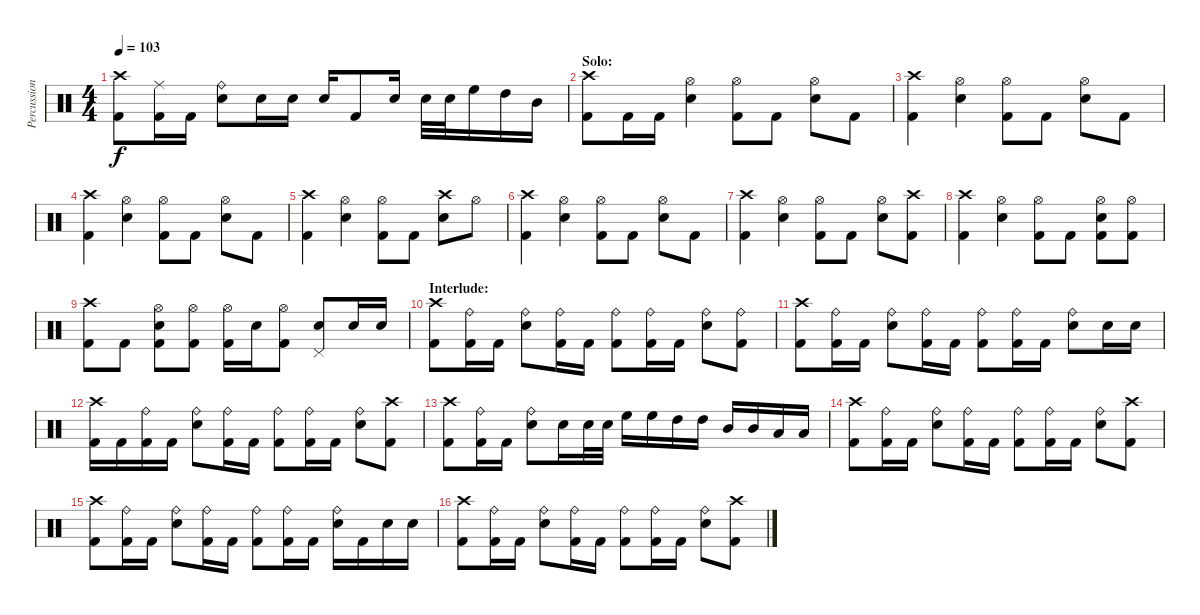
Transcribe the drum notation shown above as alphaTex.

\track ("Percussion" "Percussion") {instrument percussion}
\staff {score}
\articulation defaults
\ts (4 4)
\tempo 103
\clef neutral
\ks c
("Crash high (hit)" "Kick (hit) 2").8{dy f} ("Ride (middle)" "Kick (hit) 2").16 "Kick (hit) 2".16 ("Ride (bell)" "Snare (hit) 2").8 "Snare (hit) 2".16 "Snare (hit) 2".16 "Snare (hit) 2".16 "Kick (hit) 2".8 "Snare (hit) 2".16 "Snare (hit) 2".32 "Snare (hit) 2".32 "High Floor Tom (hit)".16 "High Tom (hit)".16 "Mid Tom (hit)".16 |
\section ("" "Solo:")
("Crash high (hit)" "Kick (hit) 2").8 "Kick (hit) 2".16 "Kick (hit) 2".16 ("Hi-Hat (open)" "Snare (hit) 2").4 ("Hi-Hat (open)" "Kick (hit) 2").8 "Kick (hit) 2".8 ("Hi-Hat (open)" "Snare (hit) 2").8 "Kick (hit) 2".8 |
("Crash high (hit)" "Kick (hit) 2").4 ("Hi-Hat (open)" "Snare (hit) 2").4 ("Hi-Hat (open)" "Kick (hit) 2").8 "Kick (hit) 2".8 ("Hi-Hat (open)" "Snare (hit) 2").8 "Kick (hit) 2".8 |
("Crash high (hit)" "Kick (hit) 2").4 ("Hi-Hat (open)" "Snare (hit) 2").4 ("Hi-Hat (open)" "Kick (hit) 2").8 "Kick (hit) 2".8 ("Hi-Hat (open)" "Snare (hit) 2").8 "Kick (hit) 2".8 |
("Crash high (hit)" "Kick (hit) 2").4 ("Hi-Hat (open)" "Snare (hit) 2").4 ("Hi-Hat (open)" "Kick (hit) 2").8 "Kick (hit) 2".8 ("Crash high (hit)" "Snare (hit) 2").8 "Hi-Hat (open)".8 |
("Crash high (hit)" "Kick (hit) 2").4 ("Hi-Hat (open)" "Snare (hit) 2").4 ("Hi-Hat (open)" "Kick (hit) 2").8 "Kick (hit) 2".8 ("Hi-Hat (open)" "Snare (hit) 2").8 "Kick (hit) 2".8 |
("Crash high (hit)" "Kick (hit) 2").4 ("Hi-Hat (open)" "Snare (hit) 2").4 ("Hi-Hat (open)" "Kick (hit) 2").8 "Kick (hit) 2".8 ("Hi-Hat (open)" "Snare (hit) 2").8 ("Crash high (hit)" "Kick (hit) 2").8 |
("Crash high (hit)" "Kick (hit) 2").4 ("Hi-Hat (open)" "Snare (hit) 2").4 ("Hi-Hat (open)" "Kick (hit) 2").8 "Kick (hit) 2".8 ("Hi-Hat (open)" "Snare (hit) 2" "Kick (hit) 2").8 ("Hi-Hat (open)" "Kick (hit) 2").8 |
("Crash high (hit)" "Kick (hit) 2").8 "Kick (hit) 2".8 ("Hi-Hat (open)" "Snare (hit) 2" "Kick (hit) 2").8 ("Hi-Hat (open)" "Kick (hit) 2").8 ("Hi-Hat (open)" "Kick (hit) 2").16 "Snare (hit) 2".16 ("Hi-Hat (open)" "Kick (hit) 2").8 ("Pedal Hi-Hat (hit)" "Snare (hit) 2").8 "Snare (hit) 2".16 "Snare (hit) 2".16 |
\section ("" "Interlude:")
("Crash high (hit)" "Kick (hit) 2").8 ("Ride (bell)" "Kick (hit) 2").16 "Kick (hit) 2".16 ("Ride (bell)" "Snare (hit) 2").8 ("Ride (bell)" "Kick (hit) 2").16 "Kick (hit) 2".16 ("Ride (bell)" "Kick (hit) 2").8 ("Ride (bell)" "Kick (hit) 2").16 "Kick (hit) 2".16 ("Ride (bell)" "Snare (hit) 2").8 ("Ride (bell)" "Kick (hit) 2").8 |
("Crash high (hit)" "Kick (hit) 2").8 ("Ride (bell)" "Kick (hit) 2").16 "Kick (hit) 2".16 ("Ride (bell)" "Snare (hit) 2").8 ("Ride (bell)" "Kick (hit) 2").16 "Kick (hit) 2".16 ("Ride (bell)" "Kick (hit) 2").8 ("Ride (bell)" "Kick (hit) 2").16 "Kick (hit) 2".16 ("Ride (bell)" "Snare (hit) 2").8 "Snare (hit) 2".16 "Snare (hit) 2".16 |
("Crash high (hit)" "Kick (hit) 2").16 "Kick (hit) 2".16 ("Ride (bell)" "Kick (hit) 2").16 "Kick (hit) 2".16 ("Ride (bell)" "Snare (hit) 2").8 ("Ride (bell)" "Kick (hit) 2").16 "Kick (hit) 2".16 ("Ride (bell)" "Kick (hit) 2").8 ("Ride (bell)" "Kick (hit) 2").16 "Kick (hit) 2".16 ("Ride (bell)" "Snare (hit) 2").8 ("Crash high (hit)" "Kick (hit) 2").8 |
("Crash high (hit)" "Kick (hit) 2").8 ("Ride (bell)" "Kick (hit) 2").16 "Kick (hit) 2".16 ("Ride (bell)" "Snare (hit) 2").8 "Snare (hit) 2".16 "Snare (hit) 2".32 "Snare (hit) 2".32 "High Floor Tom (hit)".16 "High Floor Tom (hit)".16 "High Tom (hit)".16 "High Tom (hit)".16 "Mid Tom (hit)".16 "Mid Tom (hit)".16 "Low Tom (hit)".16 "Low Tom (hit)".16 |
("Crash high (hit)" "Kick (hit) 2").8 ("Ride (bell)" "Kick (hit) 2").16 "Kick (hit) 2".16 ("Ride (bell)" "Snare (hit) 2").8 ("Ride (bell)" "Kick (hit) 2").16 "Kick (hit) 2".16 ("Ride (bell)" "Kick (hit) 2").8 ("Ride (bell)" "Kick (hit) 2").16 "Kick (hit) 2".16 ("Ride (bell)" "Snare (hit) 2").8 ("Crash high (hit)" "Kick (hit) 2").8 |
("Crash high (hit)" "Kick (hit) 2").8 ("Ride (bell)" "Kick (hit) 2").16 "Kick (hit) 2".16 ("Ride (bell)" "Snare (hit) 2").8 ("Ride (bell)" "Kick (hit) 2").16 "Kick (hit) 2".16 ("Ride (bell)" "Kick (hit) 2").8 ("Ride (bell)" "Kick (hit) 2").16 "Kick (hit) 2".16 ("Ride (bell)" "Snare (hit) 2").16 "Kick (hit) 2".16 "Snare (hit) 2".16 "Snare (hit) 2".16 |
("Crash high (hit)" "Kick (hit) 2").8 ("Ride (bell)" "Kick (hit) 2").16 "Kick (hit) 2".16 ("Ride (bell)" "Snare (hit) 2").8 ("Ride (bell)" "Kick (hit) 2").16 "Kick (hit) 2".16 ("Ride (bell)" "Kick (hit) 2").8 ("Ride (bell)" "Kick (hit) 2").16 "Kick (hit) 2".16 ("Ride (bell)" "Snare (hit) 2").8 ("Crash high (hit)" "Kick (hit) 2").8
